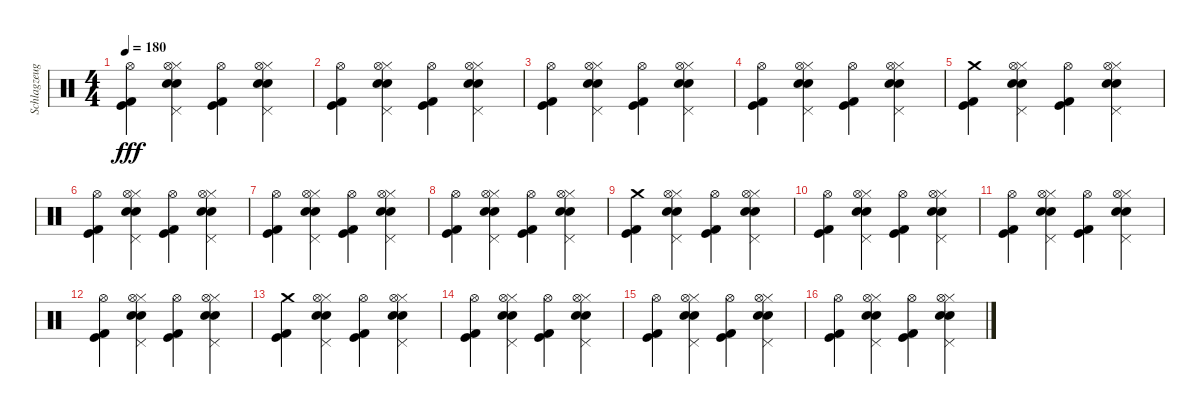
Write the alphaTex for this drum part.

\track ("Schlagzeug" "Schlagzeug") {instrument percussion}
\staff {score}
\articulation defaults
\ts (4 4)
\tempo 180
\clef neutral
\ks c
("Kick (hit)" "Kick (hit) 2" "Hi-Hat (open)").4{dy fff} ("Electric Snare (hit)" "Hi-Hat (closed)" "Snare (hit) 2" "Pedal Hi-Hat (hit)" "Hi-Hat (open)").4 ("Kick (hit)" "Kick (hit) 2" "Hi-Hat (open)").4 ("Electric Snare (hit)" "Hi-Hat (closed)" "Snare (hit) 2" "Pedal Hi-Hat (hit)" "Hi-Hat (open)").4 |
("Kick (hit)" "Kick (hit) 2" "Hi-Hat (open)").4 ("Electric Snare (hit)" "Hi-Hat (closed)" "Snare (hit) 2" "Pedal Hi-Hat (hit)" "Hi-Hat (open)").4 ("Kick (hit)" "Kick (hit) 2" "Hi-Hat (open)").4 ("Electric Snare (hit)" "Hi-Hat (closed)" "Snare (hit) 2" "Pedal Hi-Hat (hit)" "Hi-Hat (open)").4 |
("Kick (hit)" "Kick (hit) 2" "Hi-Hat (open)").4 ("Electric Snare (hit)" "Hi-Hat (closed)" "Snare (hit) 2" "Pedal Hi-Hat (hit)" "Hi-Hat (open)").4 ("Kick (hit)" "Kick (hit) 2" "Hi-Hat (open)").4 ("Electric Snare (hit)" "Hi-Hat (closed)" "Snare (hit) 2" "Pedal Hi-Hat (hit)" "Hi-Hat (open)").4 |
("Kick (hit)" "Kick (hit) 2" "Hi-Hat (open)").4 ("Electric Snare (hit)" "Hi-Hat (closed)" "Snare (hit) 2" "Pedal Hi-Hat (hit)" "Hi-Hat (open)").4 ("Kick (hit)" "Kick (hit) 2" "Hi-Hat (open)").4 ("Electric Snare (hit)" "Hi-Hat (closed)" "Snare (hit) 2" "Pedal Hi-Hat (hit)" "Hi-Hat (open)").4 |
("Kick (hit)" "Kick (hit) 2" "Crash medium (hit)").4 ("Electric Snare (hit)" "Hi-Hat (closed)" "Snare (hit) 2" "Pedal Hi-Hat (hit)" "Hi-Hat (open)").4 ("Kick (hit)" "Kick (hit) 2" "Hi-Hat (open)").4 ("Electric Snare (hit)" "Hi-Hat (closed)" "Snare (hit) 2" "Pedal Hi-Hat (hit)" "Hi-Hat (open)").4 |
("Kick (hit)" "Kick (hit) 2" "Hi-Hat (open)").4 ("Electric Snare (hit)" "Hi-Hat (closed)" "Snare (hit) 2" "Pedal Hi-Hat (hit)" "Hi-Hat (open)").4 ("Kick (hit)" "Kick (hit) 2" "Hi-Hat (open)").4 ("Electric Snare (hit)" "Hi-Hat (closed)" "Snare (hit) 2" "Pedal Hi-Hat (hit)" "Hi-Hat (open)").4 |
("Kick (hit)" "Kick (hit) 2" "Hi-Hat (open)").4 ("Electric Snare (hit)" "Hi-Hat (closed)" "Snare (hit) 2" "Pedal Hi-Hat (hit)" "Hi-Hat (open)").4 ("Kick (hit)" "Kick (hit) 2" "Hi-Hat (open)").4 ("Electric Snare (hit)" "Hi-Hat (closed)" "Snare (hit) 2" "Pedal Hi-Hat (hit)" "Hi-Hat (open)").4 |
("Kick (hit)" "Kick (hit) 2" "Hi-Hat (open)").4 ("Electric Snare (hit)" "Hi-Hat (closed)" "Snare (hit) 2" "Pedal Hi-Hat (hit)" "Hi-Hat (open)").4 ("Kick (hit)" "Kick (hit) 2" "Hi-Hat (open)").4 ("Electric Snare (hit)" "Hi-Hat (closed)" "Snare (hit) 2" "Pedal Hi-Hat (hit)" "Hi-Hat (open)").4 |
("Kick (hit)" "Kick (hit) 2" "Crash medium (hit)").4 ("Electric Snare (hit)" "Hi-Hat (closed)" "Snare (hit) 2" "Pedal Hi-Hat (hit)" "Hi-Hat (open)").4 ("Kick (hit)" "Kick (hit) 2" "Hi-Hat (open)").4 ("Electric Snare (hit)" "Hi-Hat (closed)" "Snare (hit) 2" "Pedal Hi-Hat (hit)" "Hi-Hat (open)").4 |
("Kick (hit)" "Kick (hit) 2" "Hi-Hat (open)").4 ("Electric Snare (hit)" "Hi-Hat (closed)" "Snare (hit) 2" "Pedal Hi-Hat (hit)" "Hi-Hat (open)").4 ("Kick (hit)" "Kick (hit) 2" "Hi-Hat (open)").4 ("Electric Snare (hit)" "Hi-Hat (closed)" "Snare (hit) 2" "Pedal Hi-Hat (hit)" "Hi-Hat (open)").4 |
("Kick (hit)" "Kick (hit) 2" "Hi-Hat (open)").4 ("Electric Snare (hit)" "Hi-Hat (closed)" "Snare (hit) 2" "Pedal Hi-Hat (hit)" "Hi-Hat (open)").4 ("Kick (hit)" "Kick (hit) 2" "Hi-Hat (open)").4 ("Electric Snare (hit)" "Hi-Hat (closed)" "Snare (hit) 2" "Pedal Hi-Hat (hit)" "Hi-Hat (open)").4 |
("Kick (hit)" "Kick (hit) 2" "Hi-Hat (open)").4 ("Electric Snare (hit)" "Hi-Hat (closed)" "Snare (hit) 2" "Pedal Hi-Hat (hit)" "Hi-Hat (open)").4 ("Kick (hit)" "Kick (hit) 2" "Hi-Hat (open)").4 ("Electric Snare (hit)" "Hi-Hat (closed)" "Snare (hit) 2" "Pedal Hi-Hat (hit)" "Hi-Hat (open)").4 |
("Kick (hit)" "Kick (hit) 2" "Crash medium (hit)").4 ("Electric Snare (hit)" "Hi-Hat (closed)" "Snare (hit) 2" "Pedal Hi-Hat (hit)" "Hi-Hat (open)").4 ("Kick (hit)" "Kick (hit) 2" "Hi-Hat (open)").4 ("Electric Snare (hit)" "Hi-Hat (closed)" "Snare (hit) 2" "Pedal Hi-Hat (hit)" "Hi-Hat (open)").4 |
("Kick (hit)" "Kick (hit) 2" "Hi-Hat (open)").4 ("Electric Snare (hit)" "Hi-Hat (closed)" "Snare (hit) 2" "Pedal Hi-Hat (hit)" "Hi-Hat (open)").4 ("Kick (hit)" "Kick (hit) 2" "Hi-Hat (open)").4 ("Electric Snare (hit)" "Hi-Hat (closed)" "Snare (hit) 2" "Pedal Hi-Hat (hit)" "Hi-Hat (open)").4 |
("Kick (hit)" "Kick (hit) 2" "Hi-Hat (open)").4 ("Electric Snare (hit)" "Hi-Hat (closed)" "Snare (hit) 2" "Pedal Hi-Hat (hit)" "Hi-Hat (open)").4 ("Kick (hit)" "Kick (hit) 2" "Hi-Hat (open)").4 ("Electric Snare (hit)" "Hi-Hat (closed)" "Snare (hit) 2" "Pedal Hi-Hat (hit)" "Hi-Hat (open)").4 |
("Kick (hit)" "Kick (hit) 2" "Hi-Hat (open)").4 ("Electric Snare (hit)" "Hi-Hat (closed)" "Snare (hit) 2" "Pedal Hi-Hat (hit)" "Hi-Hat (open)").4 ("Kick (hit)" "Kick (hit) 2" "Hi-Hat (open)").4 ("Electric Snare (hit)" "Hi-Hat (closed)" "Snare (hit) 2" "Pedal Hi-Hat (hit)" "Hi-Hat (open)").4
